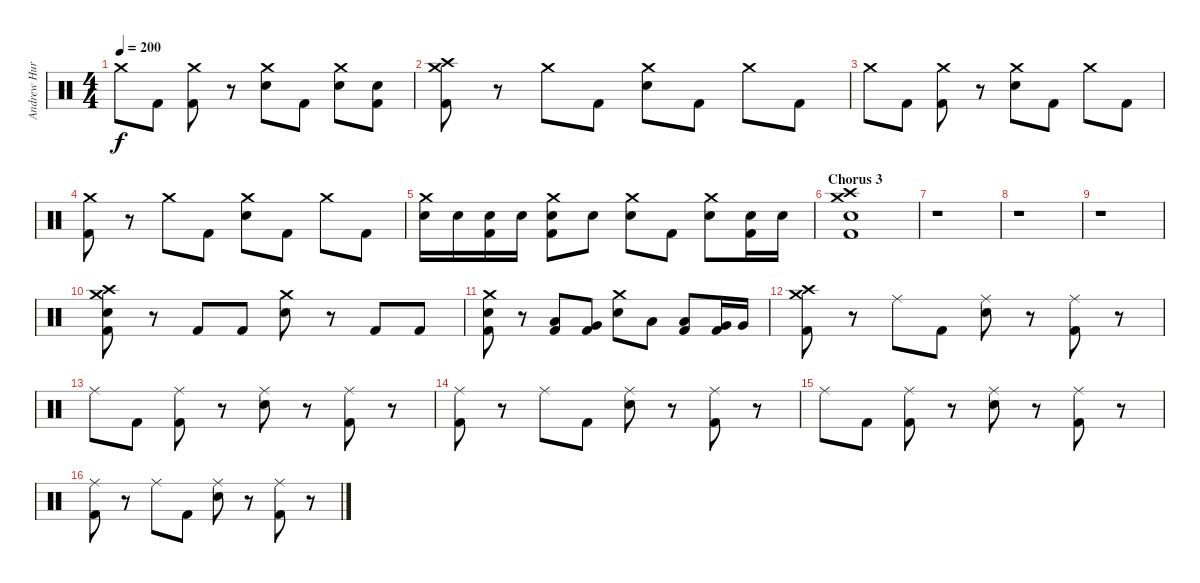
\track ("Andrew Hurley (Drums)" "Andrew Hur") {instrument percussion}
\staff {score}
\articulation defaults
\ts (4 4)
\tempo 200
\clef neutral
\ks c "Crash medium (hit)".8{dy f} "Kick (hit) 2".8
("Crash medium (hit)" "Kick (hit) 2").8 r.8 ("Crash medium (hit)" "Electric Snare (hit)").8 "Kick (hit) 2".8 ("Crash medium (hit)" "Electric Snare (hit)").8 ("Electric Snare (hit)" "Kick (hit) 2").8 |
("Crash medium (hit)" "Crash high (hit)" "Kick (hit) 2").8 r.8 "Crash medium (hit)".8 "Kick (hit) 2".8 ("Crash medium (hit)" "Electric Snare (hit)").8 "Kick (hit) 2".8 "Crash medium (hit)".8 "Kick (hit) 2".8 |
"Crash medium (hit)".8 "Kick (hit) 2".8 ("Crash medium (hit)" "Kick (hit) 2").8 r.8 ("Crash medium (hit)" "Electric Snare (hit)").8 "Kick (hit) 2".8 "Crash medium (hit)".8 "Kick (hit) 2".8 |
("Crash medium (hit)" "Kick (hit) 2").8 r.8 "Crash medium (hit)".8 "Kick (hit) 2".8 ("Crash medium (hit)" "Electric Snare (hit)").8 "Kick (hit) 2".8 "Crash medium (hit)".8 "Kick (hit) 2".8 |
("Crash medium (hit)" "Electric Snare (hit)").16 "Electric Snare (hit)".16 ("Electric Snare (hit)" "Kick (hit) 2").16 "Snare (hit) 2".16 ("Crash medium (hit)" "Snare (hit) 2" "Kick (hit) 2").8 "Snare (hit) 2".8 ("Crash medium (hit)" "Electric Snare (hit)").8 "Kick (hit) 2".8 ("Crash medium (hit)" "Electric Snare (hit)").8 ("Electric Snare (hit)" "Kick (hit) 2").16 "Electric Snare (hit)".16 |
\section ("" "Chorus 3")
("Crash high (hit)" "Crash medium (hit)" "Electric Snare (hit)" "Kick (hit) 2").1 |
r.1 |
r.1 |
r.1 |
("Crash medium (hit)" "Crash high (hit)" "Electric Snare (hit)" "Kick (hit) 2").8 r.8 "Kick (hit) 2".8 "Kick (hit) 2".8 ("Crash medium (hit)" "Electric Snare (hit)").8 r.8 "Kick (hit) 2".8 "Kick (hit) 2".8 |
("Crash medium (hit)" "Electric Snare (hit)" "Kick (hit) 2").8 r.8 ("Low Tom (hit)" "Kick (hit) 2").8 ("Very Low Tom (hit)" "Kick (hit) 2").8 ("Crash medium (hit)" "Electric Snare (hit)").8 "Low Tom (hit)".8 ("Low Tom (hit)" "Kick (hit) 2").8 ("Very Low Tom (hit)" "Kick (hit) 2").16 "Very Low Tom (hit)".16 |
("Crash medium (hit)" "Crash high (hit)" "Kick (hit) 2").8 r.8 "Ride (middle)".8 "Kick (hit) 2".8 ("Ride (middle)" "Electric Snare (hit)").8 r.8 ("Ride (middle)" "Kick (hit) 2").8 r.8 |
"Ride (middle)".8 "Kick (hit) 2".8 ("Ride (middle)" "Kick (hit) 2").8 r.8 ("Ride (middle)" "Electric Snare (hit)").8 r.8 ("Ride (middle)" "Kick (hit) 2").8 r.8 |
("Ride (middle)" "Kick (hit) 2").8 r.8 "Ride (middle)".8 "Kick (hit) 2".8 ("Ride (middle)" "Electric Snare (hit)").8 r.8 ("Ride (middle)" "Kick (hit) 2").8 r.8 |
"Ride (middle)".8 "Kick (hit) 2".8 ("Ride (middle)" "Kick (hit) 2").8 r.8 ("Ride (middle)" "Electric Snare (hit)").8 r.8 ("Ride (middle)" "Kick (hit) 2").8 r.8 |
("Ride (middle)" "Kick (hit) 2").8 r.8 "Ride (middle)".8 "Kick (hit) 2".8 ("Ride (middle)" "Electric Snare (hit)").8 r.8 ("Ride (middle)" "Kick (hit) 2").8 r.8
